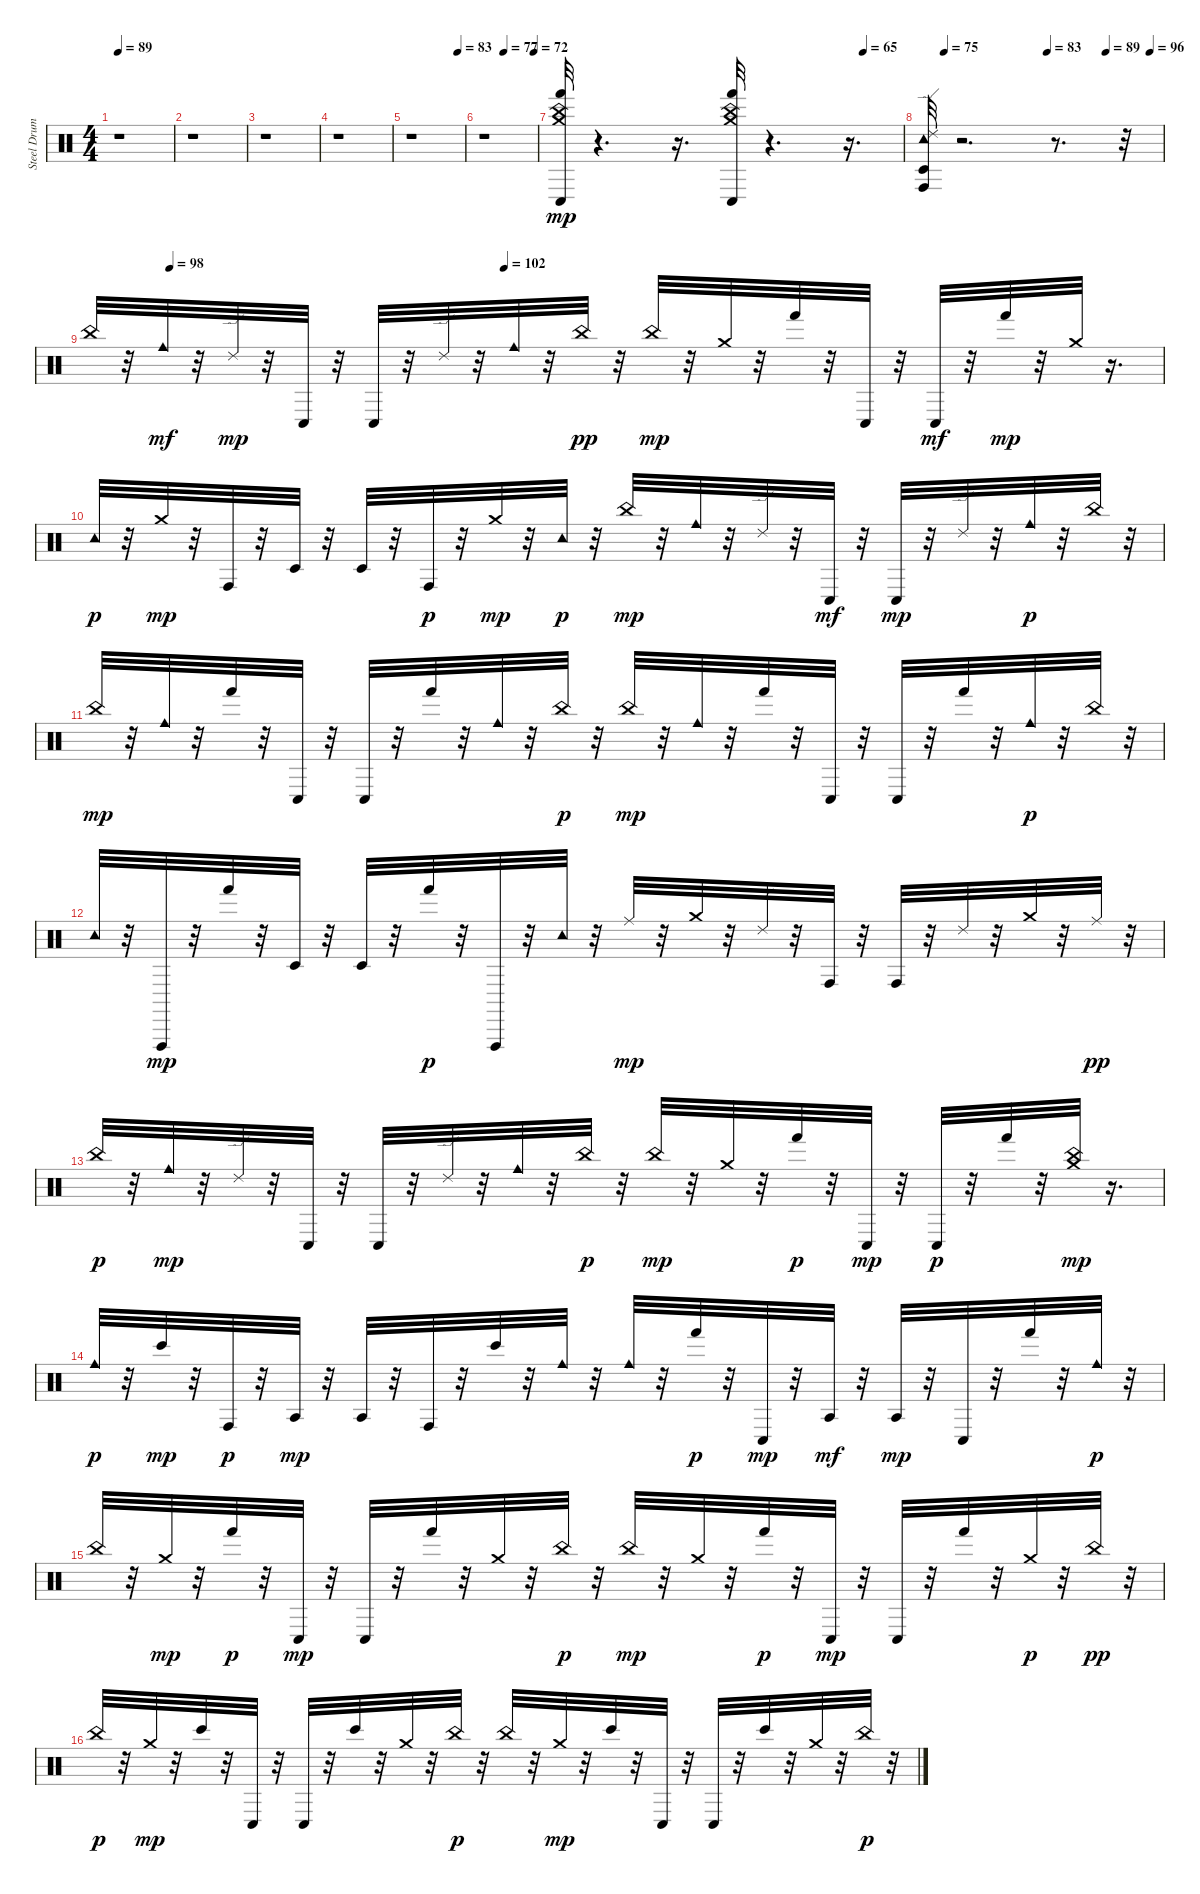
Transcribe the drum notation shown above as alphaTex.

\track ("Steel Drums" "Steel Drum") {instrument percussion}
\staff {score}
\articulation defaults
\ts (4 4)
\tempo 89
\clef neutral
\ks c
r.1{dy pp} |
r.1 |
r.1 |
r.1 |
\tempo (83 0.8854166666666666)
r.1 |
\tempo (77 0.3854166666666667)
\tempo (72 0.9479166666666666)
r.1 |
\tempo (65 0.8854166666666666)
("Conga low (hit)" "Crash medium (hit)" "Hand (hit)" "China (hit)").32{dy mp} r.4{d} r.16{d} ("Conga low (hit)" "Hand (hit)" "China (hit)" "Crash medium (hit)").32 r.4{d} r.16{d} |
\tempo (75 0.07291666666666667)
\tempo (83 0.5104166666666666)
\tempo (89 0.7604166666666666)
\tempo (96 0.9479166666666666)
("Conga high (hit)" "Ride (edge) 2" "Tambourine (hit)" "Timbale low (hit)").32 r.2{d} r.8{d} r.32 |
\tempo (98 0.07291666666666667)
\tempo (102 0.3854166666666667)
"China (hit)".32 r.32 "Cowbell medium (hit)".32{dy mf} r.32 "Ride (edge) 2".32{dy mp} r.32 "Conga low (hit)".32 r.32 "Conga low (hit)".32 r.32 "Ride (edge) 2".32 r.32 "Cowbell medium (hit)".32 r.32 "China (hit)".32{dy pp} r.32 "China (hit)".32{dy mp} r.32 "Crash medium (hit)".32 r.32 "Hand (hit)".32 r.32 "Conga low (hit)".32 r.32 "Conga low (hit)".32{dy mf} r.32 "Hand (hit)".32{dy mp} r.32 "Crash medium (hit)".32 r.16{d} |
"Tambourine (hit)".32{dy p} r.32 "Crash medium (hit)".32{dy mp} r.32 "Conga high (hit)".32 r.32 "Timbale low (hit)".32 r.32 "Timbale low (hit)".32 r.32 "Conga high (hit)".32{dy p} r.32 "Crash medium (hit)".32{dy mp} r.32 "Tambourine (hit)".32{dy p} r.32 "China (hit)".32{dy mp} r.32 "Cowbell medium (hit)".32 r.32 "Ride (edge) 2".32 r.32 "Conga low (hit)".32{dy mf} r.32 "Conga low (hit)".32{dy mp} r.32 "Ride (edge) 2".32 r.32 "Cowbell medium (hit)".32{dy p} r.32 "China (hit)".32 r.32 |
"China (hit)".32{dy mp} r.32 "Cowbell medium (hit)".32 r.32 "Hand (hit)".32 r.32 "Conga low (hit)".32 r.32 "Conga low (hit)".32 r.32 "Hand (hit)".32 r.32 "Cowbell medium (hit)".32 r.32 "China (hit)".32{dy p} r.32 "China (hit)".32{dy mp} r.32 "Cowbell medium (hit)".32 r.32 "Hand (hit)".32 r.32 "Conga low (hit)".32 r.32 "Conga low (hit)".32 r.32 "Hand (hit)".32 r.32 "Cowbell medium (hit)".32{dy p} r.32 "China (hit)".32 r.32 |
"Tambourine (hit)".32 r.32 "Vibraslap (hit)".32{dy mp} r.32 "Hand (hit)".32 r.32 "Timbale low (hit)".32 r.32 "Timbale low (hit)".32 r.32 "Hand (hit)".32{dy p} r.32 "Vibraslap (hit)".32 r.32 "Tambourine (hit)".32 r.32 "Ride (middle)".32{dy mp} r.32 "Crash medium (hit)".32 r.32 "Ride (edge) 2".32 r.32 "Conga high (hit)".32 r.32 "Conga high (hit)".32 r.32 "Ride (edge) 2".32 r.32 "Crash medium (hit)".32 r.32 "Ride (middle)".32{dy pp} r.32 |
"China (hit)".32{dy p} r.32 "Cowbell medium (hit)".32{dy mp} r.32 "Ride (edge) 2".32 r.32 "Conga low (hit)".32 r.32 "Conga low (hit)".32 r.32 "Ride (edge) 2".32 r.32 "Cowbell medium (hit)".32 r.32 "China (hit)".32{dy p} r.32 "China (hit)".32{dy mp} r.32 "Crash medium (hit)".32 r.32 "Hand (hit)".32{dy p} r.32 "Conga low (hit)".32{dy mp} r.32 "Conga low (hit)".32{dy p} r.32 "Hand (hit)".32 r.32 ("China (hit)" "Crash medium (hit)").32{dy mp} r.16{d} |
"Cowbell medium (hit)".32{dy p} r.32 "Bongo High (hit)".32{dy mp} r.32 "Conga high (hit)".32{dy p} r.32 "Agogo tow (hit)".32{dy mp} r.32 "Agogo tow (hit)".32 r.32 "Conga high (hit)".32 r.32 "Bongo High (hit)".32 r.32 "Cowbell medium (hit)".32 r.32 "Cowbell medium (hit)".32 r.32 "Hand (hit)".32{dy p} r.32 "Conga low (hit)".32{dy mp} r.32 "Agogo tow (hit)".32{dy mf} r.32 "Agogo tow (hit)".32{dy mp} r.32 "Conga low (hit)".32 r.32 "Hand (hit)".32 r.32 "Cowbell medium (hit)".32{dy p} r.32 |
"China (hit)".32 r.32 "Crash medium (hit)".32{dy mp} r.32 "Hand (hit)".32{dy p} r.32 "Conga low (hit)".32{dy mp} r.32 "Conga low (hit)".32 r.32 "Hand (hit)".32 r.32 "Crash medium (hit)".32 r.32 "China (hit)".32{dy p} r.32 "China (hit)".32{dy mp} r.32 "Crash medium (hit)".32 r.32 "Hand (hit)".32{dy p} r.32 "Conga low (hit)".32{dy mp} r.32 "Conga low (hit)".32 r.32 "Hand (hit)".32 r.32 "Crash medium (hit)".32{dy p} r.32 "China (hit)".32{dy pp} r.32 |
"China (hit)".32{dy p} r.32 "Crash medium (hit)".32{dy mp} r.32 "Bongo High (hit)".32 r.32 "Conga low (hit)".32 r.32 "Conga low (hit)".32 r.32 "Bongo High (hit)".32 r.32 "Crash medium (hit)".32 r.32 "China (hit)".32{dy p} r.32 "China (hit)".32 r.32 "Crash medium (hit)".32{dy mp} r.32 "Bongo High (hit)".32 r.32 "Conga low (hit)".32 r.32 "Conga low (hit)".32 r.32 "Bongo High (hit)".32 r.32 "Crash medium (hit)".32 r.32 "China (hit)".32{dy p} r.32
